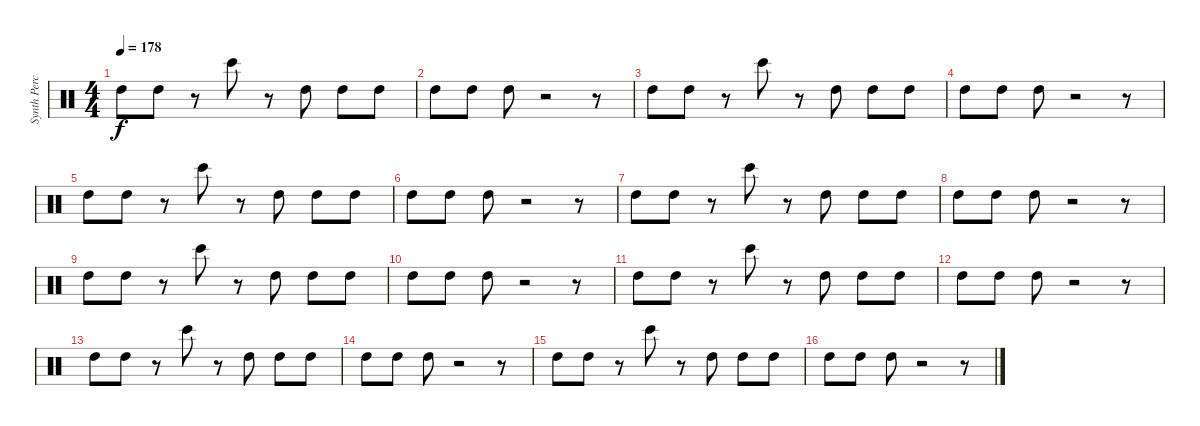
\track ("Synth Perc" "Synth Perc") {instrument percussion}
\staff {score}
\articulation defaults
\ts (4 4)
\tempo 178
\clef neutral
\ks c "High Tom (hit)".8{dy f} "High Tom (hit)".8
r.8 "Bongo High (hit)".8 r.8 "High Tom (hit)".8 "High Tom (hit)".8 "High Tom (hit)".8 |
"High Tom (hit)".8 "High Tom (hit)".8 "High Tom (hit)".8 r.2 r.8 |
"High Tom (hit)".8 "High Tom (hit)".8 r.8 "Bongo High (hit)".8 r.8 "High Tom (hit)".8 "High Tom (hit)".8 "High Tom (hit)".8 |
"High Tom (hit)".8 "High Tom (hit)".8 "High Tom (hit)".8 r.2 r.8 |
"High Tom (hit)".8 "High Tom (hit)".8 r.8 "Bongo High (hit)".8 r.8 "High Tom (hit)".8 "High Tom (hit)".8 "High Tom (hit)".8 |
"High Tom (hit)".8 "High Tom (hit)".8 "High Tom (hit)".8 r.2 r.8 |
"High Tom (hit)".8 "High Tom (hit)".8 r.8 "Bongo High (hit)".8 r.8 "High Tom (hit)".8 "High Tom (hit)".8 "High Tom (hit)".8 |
"High Tom (hit)".8 "High Tom (hit)".8 "High Tom (hit)".8 r.2 r.8 |
"High Tom (hit)".8 "High Tom (hit)".8 r.8 "Bongo High (hit)".8 r.8 "High Tom (hit)".8 "High Tom (hit)".8 "High Tom (hit)".8 |
"High Tom (hit)".8 "High Tom (hit)".8 "High Tom (hit)".8 r.2 r.8 |
"High Tom (hit)".8 "High Tom (hit)".8 r.8 "Bongo High (hit)".8 r.8 "High Tom (hit)".8 "High Tom (hit)".8 "High Tom (hit)".8 |
"High Tom (hit)".8 "High Tom (hit)".8 "High Tom (hit)".8 r.2 r.8 |
"High Tom (hit)".8 "High Tom (hit)".8 r.8 "Bongo High (hit)".8 r.8 "High Tom (hit)".8 "High Tom (hit)".8 "High Tom (hit)".8 |
"High Tom (hit)".8 "High Tom (hit)".8 "High Tom (hit)".8 r.2 r.8 |
"High Tom (hit)".8 "High Tom (hit)".8 r.8 "Bongo High (hit)".8 r.8 "High Tom (hit)".8 "High Tom (hit)".8 "High Tom (hit)".8 |
"High Tom (hit)".8 "High Tom (hit)".8 "High Tom (hit)".8 r.2 r.8
